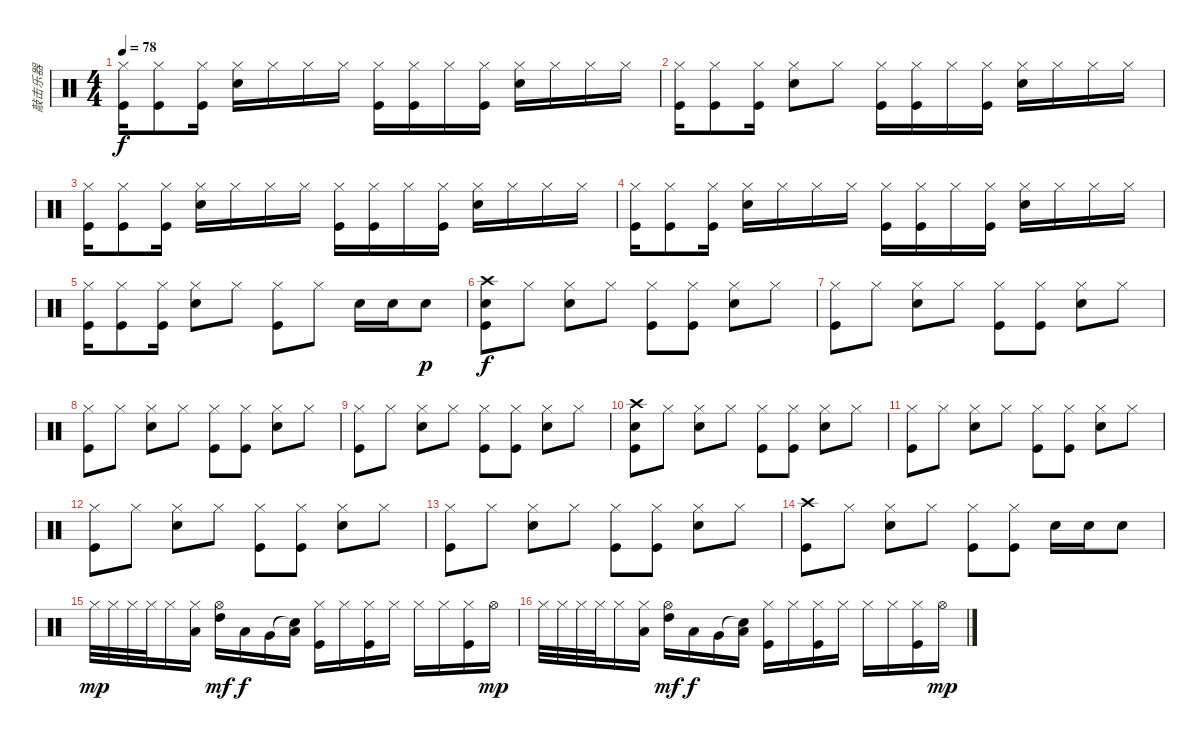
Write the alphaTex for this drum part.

\track ("敲击乐器" "敲击乐器") {instrument percussion}
\staff {score}
\articulation defaults
\ts (4 4)
\tempo 78
\clef neutral
\ks c
("Hi-Hat (closed)" "Kick (hit)").16{dy f} ("Hi-Hat (closed)" "Kick (hit)").8 ("Hi-Hat (closed)" "Kick (hit)").16 ("Hi-Hat (closed)" "Snare (hit) 2").16 "Hi-Hat (closed)".16 "Hi-Hat (closed)".16 "Hi-Hat (closed)".16 ("Hi-Hat (closed)" "Kick (hit)").16 ("Hi-Hat (closed)" "Kick (hit)").16 "Hi-Hat (closed)".16 ("Hi-Hat (closed)" "Kick (hit)").16 ("Hi-Hat (closed)" "Snare (hit) 2").16 "Hi-Hat (closed)".16 "Hi-Hat (closed)".16 "Hi-Hat (closed)".16 |
("Hi-Hat (closed)" "Kick (hit)").16 ("Hi-Hat (closed)" "Kick (hit)").8 ("Hi-Hat (closed)" "Kick (hit)").16 ("Hi-Hat (closed)" "Snare (hit) 2").8 "Hi-Hat (closed)".8 ("Hi-Hat (closed)" "Kick (hit)").16 ("Hi-Hat (closed)" "Kick (hit)").16 "Hi-Hat (closed)".16 ("Hi-Hat (closed)" "Kick (hit)").16 ("Hi-Hat (closed)" "Snare (hit) 2").16 "Hi-Hat (closed)".16 "Hi-Hat (closed)".16 "Hi-Hat (closed)".16 |
("Hi-Hat (closed)" "Kick (hit)").16 ("Hi-Hat (closed)" "Kick (hit)").8 ("Hi-Hat (closed)" "Kick (hit)").16 ("Hi-Hat (closed)" "Snare (hit) 2").16 "Hi-Hat (closed)".16 "Hi-Hat (closed)".16 "Hi-Hat (closed)".16 ("Hi-Hat (closed)" "Kick (hit)").16 ("Hi-Hat (closed)" "Kick (hit)").16 "Hi-Hat (closed)".16 ("Hi-Hat (closed)" "Kick (hit)").16 ("Hi-Hat (closed)" "Snare (hit) 2").16 "Hi-Hat (closed)".16 "Hi-Hat (closed)".16 "Hi-Hat (closed)".16 |
("Hi-Hat (closed)" "Kick (hit)").16 ("Hi-Hat (closed)" "Kick (hit)").8 ("Hi-Hat (closed)" "Kick (hit)").16 ("Hi-Hat (closed)" "Snare (hit) 2").16 "Hi-Hat (closed)".16 "Hi-Hat (closed)".16 "Hi-Hat (closed)".16 ("Hi-Hat (closed)" "Kick (hit)").16 ("Hi-Hat (closed)" "Kick (hit)").16 "Hi-Hat (closed)".16 ("Hi-Hat (closed)" "Kick (hit)").16 ("Hi-Hat (closed)" "Snare (hit) 2").16 "Hi-Hat (closed)".16 "Hi-Hat (closed)".16 "Hi-Hat (closed)".16 |
("Hi-Hat (closed)" "Kick (hit)").16 ("Hi-Hat (closed)" "Kick (hit)").8 ("Hi-Hat (closed)" "Kick (hit)").16 ("Hi-Hat (closed)" "Snare (hit) 2").8 "Hi-Hat (closed)".8 ("Hi-Hat (closed)" "Kick (hit)").8 "Hi-Hat (closed)".8 "Electric Snare (hit)".16 "Electric Snare (hit)".16 "Snare (hit) 2".8{dy p} |
("Crash high (hit)" "Kick (hit)" "Snare (hit) 2").8{dy f} "Hi-Hat (closed)".8 ("Hi-Hat (closed)" "Snare (hit) 2").8 "Hi-Hat (closed)".8 ("Hi-Hat (closed)" "Kick (hit)").8 ("Hi-Hat (closed)" "Kick (hit)").8 ("Hi-Hat (closed)" "Snare (hit) 2").8 "Hi-Hat (closed)".8 |
("Hi-Hat (closed)" "Kick (hit)").8 "Hi-Hat (closed)".8 ("Hi-Hat (closed)" "Snare (hit) 2").8 "Hi-Hat (closed)".8 ("Hi-Hat (closed)" "Kick (hit)").8 ("Hi-Hat (closed)" "Kick (hit)").8 ("Hi-Hat (closed)" "Snare (hit) 2").8 "Hi-Hat (closed)".8 |
("Hi-Hat (closed)" "Kick (hit)").8 "Hi-Hat (closed)".8 ("Hi-Hat (closed)" "Snare (hit) 2").8 "Hi-Hat (closed)".8 ("Hi-Hat (closed)" "Kick (hit)").8 ("Hi-Hat (closed)" "Kick (hit)").8 ("Hi-Hat (closed)" "Snare (hit) 2").8 "Hi-Hat (closed)".8 |
("Hi-Hat (closed)" "Kick (hit)").8 "Hi-Hat (closed)".8 ("Hi-Hat (closed)" "Snare (hit) 2").8 "Hi-Hat (closed)".8 ("Hi-Hat (closed)" "Kick (hit)").8 ("Hi-Hat (closed)" "Kick (hit)").8 ("Hi-Hat (closed)" "Snare (hit) 2").8 "Hi-Hat (closed)".8 |
("Crash high (hit)" "Kick (hit)" "Snare (hit) 2").8 "Hi-Hat (closed)".8 ("Hi-Hat (closed)" "Snare (hit) 2").8 "Hi-Hat (closed)".8 ("Hi-Hat (closed)" "Kick (hit)").8 ("Hi-Hat (closed)" "Kick (hit)").8 ("Hi-Hat (closed)" "Snare (hit) 2").8 "Hi-Hat (closed)".8 |
("Hi-Hat (closed)" "Kick (hit)").8 "Hi-Hat (closed)".8 ("Hi-Hat (closed)" "Snare (hit) 2").8 "Hi-Hat (closed)".8 ("Hi-Hat (closed)" "Kick (hit)").8 ("Hi-Hat (closed)" "Kick (hit)").8 ("Hi-Hat (closed)" "Snare (hit) 2").8 "Hi-Hat (closed)".8 |
("Hi-Hat (closed)" "Kick (hit)").8 "Hi-Hat (closed)".8 ("Hi-Hat (closed)" "Snare (hit) 2").8 "Hi-Hat (closed)".8 ("Hi-Hat (closed)" "Kick (hit)").8 ("Hi-Hat (closed)" "Kick (hit)").8 ("Hi-Hat (closed)" "Snare (hit) 2").8 "Hi-Hat (closed)".8 |
("Hi-Hat (closed)" "Kick (hit)").8 "Hi-Hat (closed)".8 ("Hi-Hat (closed)" "Snare (hit) 2").8 "Hi-Hat (closed)".8 ("Hi-Hat (closed)" "Kick (hit)").8 ("Hi-Hat (closed)" "Kick (hit)").8 ("Hi-Hat (closed)" "Snare (hit) 2").8 "Hi-Hat (closed)".8 |
("Crash high (hit)" "Kick (hit)").8 "Hi-Hat (closed)".8 ("Hi-Hat (closed)" "Snare (hit) 2").8 "Hi-Hat (closed)".8 ("Hi-Hat (closed)" "Kick (hit)").8 ("Hi-Hat (closed)" "Kick (hit)").8 "Electric Snare (hit)".16 "Electric Snare (hit)".16 "Snare (hit) 2".8 |
"Hi-Hat (closed)".32{dy mp} "Hi-Hat (closed)".32 "Hi-Hat (closed)".32 "Hi-Hat (closed)".32 "Hi-Hat (closed)".16 ("Hi-Hat (closed)" "Low Tom (hit)").16 ("Hi-Hat (open)" "High Tom (hit)").16{dy mf} "Low Tom (hit)".16{dy f} "Very Low Tom (hit)".16 ("Snare (hit)"{t} "Low Floor Tom (hit)").16 ("Hi-Hat (closed)" "Kick (hit)").16 "Hi-Hat (closed)".16 ("Hi-Hat (closed)" "Kick (hit)").16 "Hi-Hat (closed)".16 "Hi-Hat (closed)".16 "Hi-Hat (closed)".16 ("Kick (hit)" "Hi-Hat (closed)").16 "Hi-Hat (open)".16{dy mp} |
"Hi-Hat (closed)".32 "Hi-Hat (closed)".32 "Hi-Hat (closed)".32 "Hi-Hat (closed)".32 "Hi-Hat (closed)".16 ("Hi-Hat (closed)" "Low Tom (hit)").16 ("Hi-Hat (open)" "High Tom (hit)").16{dy mf} "Low Tom (hit)".16{dy f} "Very Low Tom (hit)".16 ("Snare (hit)"{t} "Low Floor Tom (hit)").16 ("Hi-Hat (closed)" "Kick (hit)").16 "Hi-Hat (closed)".16 ("Hi-Hat (closed)" "Kick (hit)").16 "Hi-Hat (closed)".16 "Hi-Hat (closed)".16 "Hi-Hat (closed)".16 ("Kick (hit)" "Hi-Hat (closed)").16 "Hi-Hat (open)".16{dy mp}
